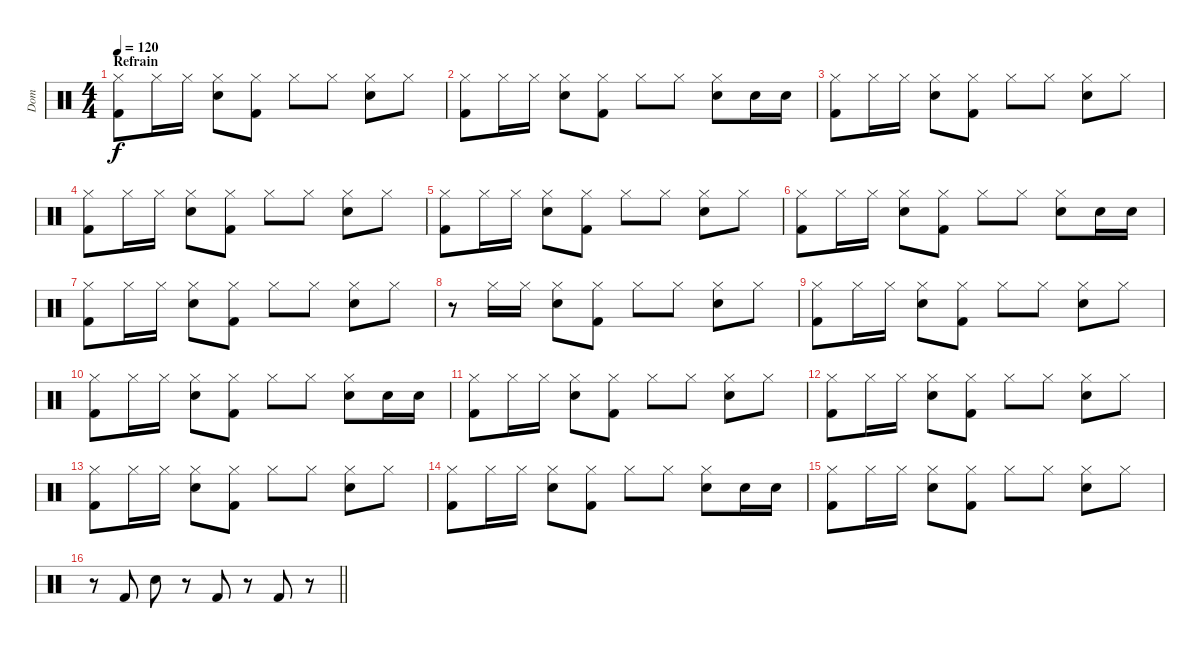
\track ("Dom" "Dom") {instrument percussion}
\staff {score}
\articulation defaults
\ts (4 4)
\section ("" "Refrain")
\tempo 120
\clef neutral
\ks c
("Kick (hit) 2" "Hi-Hat (closed)").8{dy f} "Hi-Hat (closed)".16 "Hi-Hat (closed)".16 ("Snare (hit) 2" "Hi-Hat (closed)").8 ("Kick (hit) 2" "Hi-Hat (closed)").8 "Hi-Hat (closed)".8 "Hi-Hat (closed)".8 ("Snare (hit) 2" "Hi-Hat (closed)").8 "Hi-Hat (closed)".8 |
("Kick (hit) 2" "Hi-Hat (closed)").8 "Hi-Hat (closed)".16 "Hi-Hat (closed)".16 ("Snare (hit) 2" "Hi-Hat (closed)").8 ("Kick (hit) 2" "Hi-Hat (closed)").8 "Hi-Hat (closed)".8 "Hi-Hat (closed)".8 ("Snare (hit) 2" "Hi-Hat (closed)").8 "Snare (hit) 2".16 "Snare (hit) 2".16 |
("Kick (hit) 2" "Hi-Hat (closed)").8 "Hi-Hat (closed)".16 "Hi-Hat (closed)".16 ("Snare (hit) 2" "Hi-Hat (closed)").8 ("Kick (hit) 2" "Hi-Hat (closed)").8 "Hi-Hat (closed)".8 "Hi-Hat (closed)".8 ("Snare (hit) 2" "Hi-Hat (closed)").8 "Hi-Hat (closed)".8 |
("Kick (hit) 2" "Hi-Hat (closed)").8 "Hi-Hat (closed)".16 "Hi-Hat (closed)".16 ("Snare (hit) 2" "Hi-Hat (closed)").8 ("Kick (hit) 2" "Hi-Hat (closed)").8 "Hi-Hat (closed)".8 "Hi-Hat (closed)".8 ("Snare (hit) 2" "Hi-Hat (closed)").8 "Hi-Hat (closed)".8 |
("Kick (hit) 2" "Hi-Hat (closed)").8 "Hi-Hat (closed)".16 "Hi-Hat (closed)".16 ("Snare (hit) 2" "Hi-Hat (closed)").8 ("Kick (hit) 2" "Hi-Hat (closed)").8 "Hi-Hat (closed)".8 "Hi-Hat (closed)".8 ("Snare (hit) 2" "Hi-Hat (closed)").8 "Hi-Hat (closed)".8 |
("Kick (hit) 2" "Hi-Hat (closed)").8 "Hi-Hat (closed)".16 "Hi-Hat (closed)".16 ("Snare (hit) 2" "Hi-Hat (closed)").8 ("Kick (hit) 2" "Hi-Hat (closed)").8 "Hi-Hat (closed)".8 "Hi-Hat (closed)".8 ("Snare (hit) 2" "Hi-Hat (closed)").8 "Snare (hit) 2".16 "Snare (hit) 2".16 |
("Kick (hit) 2" "Hi-Hat (closed)").8 "Hi-Hat (closed)".16 "Hi-Hat (closed)".16 ("Snare (hit) 2" "Hi-Hat (closed)").8 ("Kick (hit) 2" "Hi-Hat (closed)").8 "Hi-Hat (closed)".8 "Hi-Hat (closed)".8 ("Snare (hit) 2" "Hi-Hat (closed)").8 "Hi-Hat (closed)".8 |
r.8 "Hi-Hat (closed)".16 "Hi-Hat (closed)".16 ("Snare (hit) 2" "Hi-Hat (closed)").8 ("Kick (hit) 2" "Hi-Hat (closed)").8 "Hi-Hat (closed)".8 "Hi-Hat (closed)".8 ("Snare (hit) 2" "Hi-Hat (closed)").8 "Hi-Hat (closed)".8 |
("Kick (hit) 2" "Hi-Hat (closed)").8 "Hi-Hat (closed)".16 "Hi-Hat (closed)".16 ("Snare (hit) 2" "Hi-Hat (closed)").8 ("Kick (hit) 2" "Hi-Hat (closed)").8 "Hi-Hat (closed)".8 "Hi-Hat (closed)".8 ("Snare (hit) 2" "Hi-Hat (closed)").8 "Hi-Hat (closed)".8 |
("Kick (hit) 2" "Hi-Hat (closed)").8 "Hi-Hat (closed)".16 "Hi-Hat (closed)".16 ("Snare (hit) 2" "Hi-Hat (closed)").8 ("Kick (hit) 2" "Hi-Hat (closed)").8 "Hi-Hat (closed)".8 "Hi-Hat (closed)".8 ("Snare (hit) 2" "Hi-Hat (closed)").8 "Snare (hit) 2".16 "Snare (hit) 2".16 |
("Kick (hit) 2" "Hi-Hat (closed)").8 "Hi-Hat (closed)".16 "Hi-Hat (closed)".16 ("Snare (hit) 2" "Hi-Hat (closed)").8 ("Kick (hit) 2" "Hi-Hat (closed)").8 "Hi-Hat (closed)".8 "Hi-Hat (closed)".8 ("Snare (hit) 2" "Hi-Hat (closed)").8 "Hi-Hat (closed)".8 |
("Kick (hit) 2" "Hi-Hat (closed)").8 "Hi-Hat (closed)".16 "Hi-Hat (closed)".16 ("Snare (hit) 2" "Hi-Hat (closed)").8 ("Kick (hit) 2" "Hi-Hat (closed)").8 "Hi-Hat (closed)".8 "Hi-Hat (closed)".8 ("Snare (hit) 2" "Hi-Hat (closed)").8 "Hi-Hat (closed)".8 |
("Kick (hit) 2" "Hi-Hat (closed)").8 "Hi-Hat (closed)".16 "Hi-Hat (closed)".16 ("Snare (hit) 2" "Hi-Hat (closed)").8 ("Kick (hit) 2" "Hi-Hat (closed)").8 "Hi-Hat (closed)".8 "Hi-Hat (closed)".8 ("Snare (hit) 2" "Hi-Hat (closed)").8 "Hi-Hat (closed)".8 |
("Kick (hit) 2" "Hi-Hat (closed)").8 "Hi-Hat (closed)".16 "Hi-Hat (closed)".16 ("Snare (hit) 2" "Hi-Hat (closed)").8 ("Kick (hit) 2" "Hi-Hat (closed)").8 "Hi-Hat (closed)".8 "Hi-Hat (closed)".8 ("Snare (hit) 2" "Hi-Hat (closed)").8 "Snare (hit) 2".16 "Snare (hit) 2".16 |
("Kick (hit) 2" "Hi-Hat (closed)").8 "Hi-Hat (closed)".16 "Hi-Hat (closed)".16 ("Snare (hit) 2" "Hi-Hat (closed)").8 ("Kick (hit) 2" "Hi-Hat (closed)").8 "Hi-Hat (closed)".8 "Hi-Hat (closed)".8 ("Snare (hit) 2" "Hi-Hat (closed)").8 "Hi-Hat (closed)".8 |
\barLineRight lightlight
r.8 "Kick (hit) 2".8 "Snare (hit) 2".8 r.8 "Kick (hit) 2".8 r.8 "Kick (hit) 2".8 r.8
